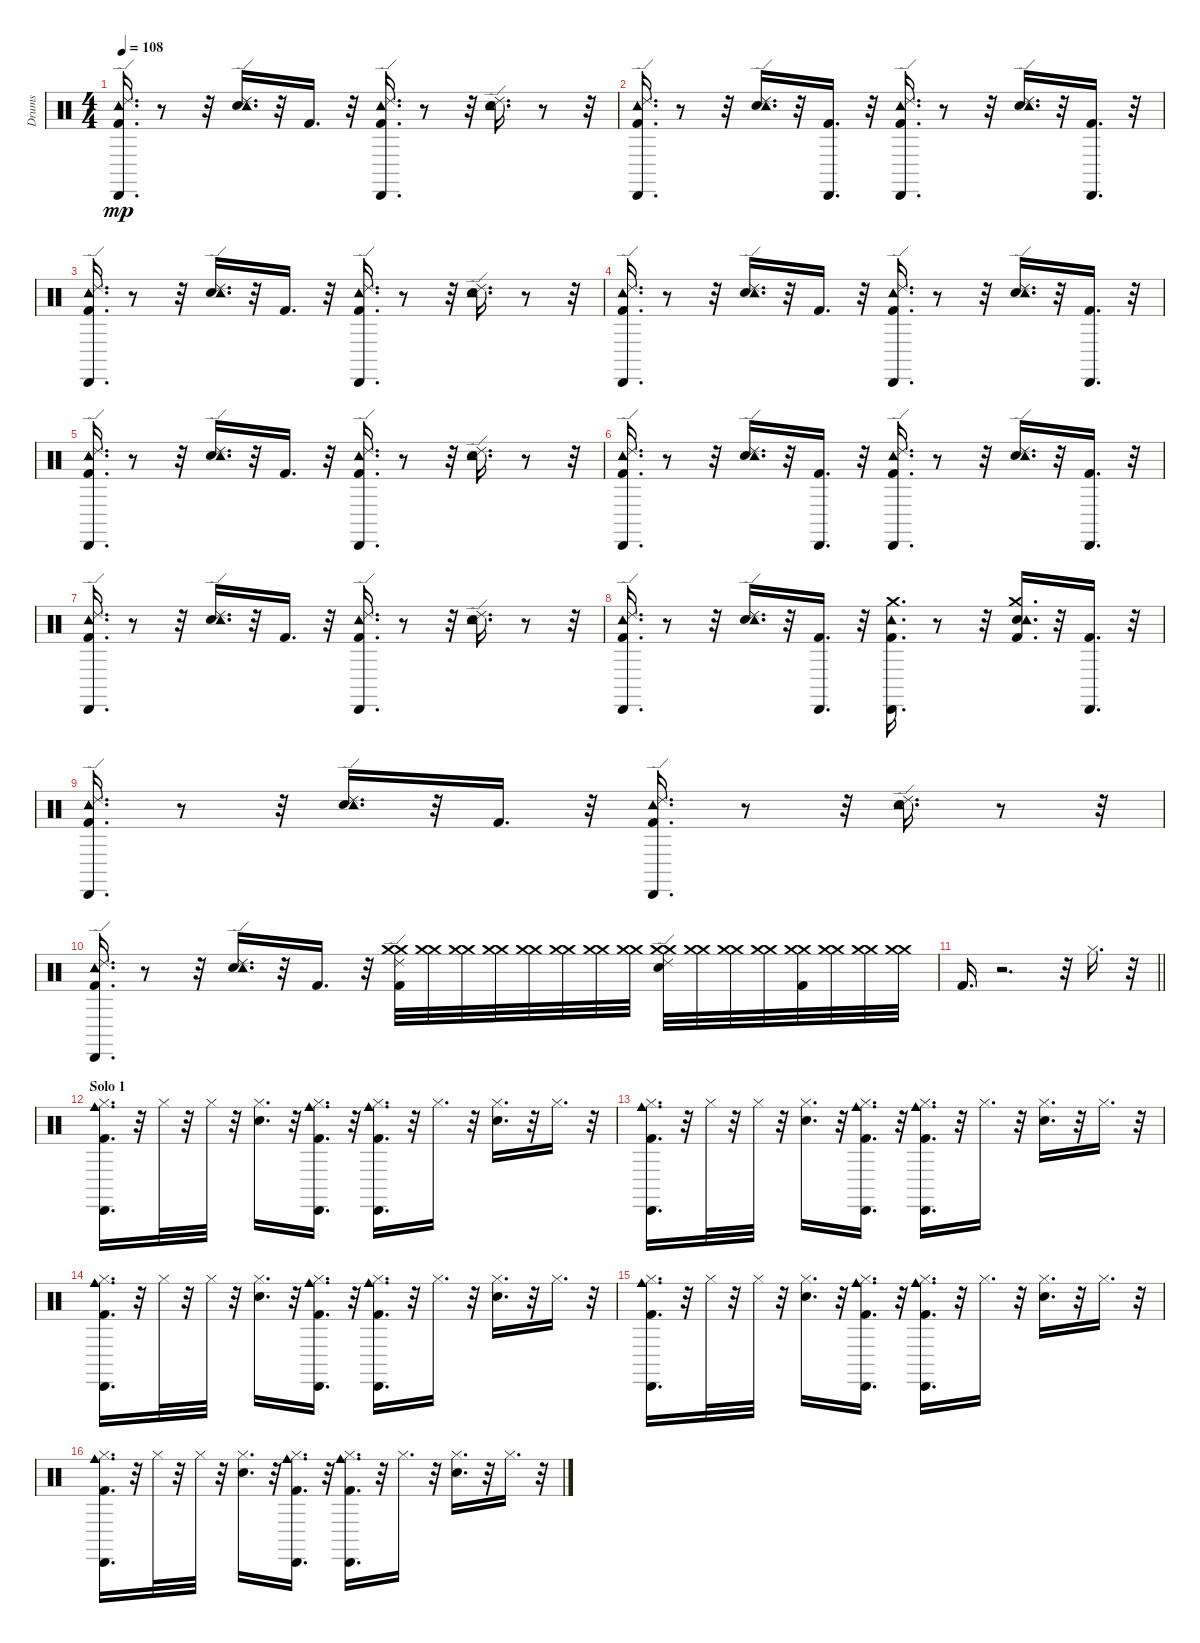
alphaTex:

\track ("Drums" "Drums") {instrument percussion}
\staff {score}
\articulation defaults
\ts (4 4)
\tempo 108
\clef neutral
\ks c
("Ride (edge) 2" "Kick (hit) 2" "Tambourine (hit)" "Cabasa (hit)").16{d dy mp} r.8 r.32 ("Ride (edge) 2" "Snare (hit) 2" "Tambourine (hit)").16{d} r.32 "Kick (hit) 2".16{d} r.32 ("Ride (edge) 2" "Kick (hit) 2" "Tambourine (hit)" "Cabasa (hit)").16{d} r.8 r.32 ("Ride (edge) 2" "Snare (hit) 2" "Tambourine (hit)").16{d} r.8 r.32 |
("Ride (edge) 2" "Kick (hit) 2" "Tambourine (hit)" "Cabasa (hit)").16{d} r.8 r.32 ("Ride (edge) 2" "Snare (hit) 2" "Tambourine (hit)").16{d} r.32 ("Kick (hit) 2" "Cabasa (hit)").16{d} r.32 ("Ride (edge) 2" "Kick (hit) 2" "Tambourine (hit)" "Cabasa (hit)").16{d} r.8 r.32 ("Ride (edge) 2" "Snare (hit) 2" "Tambourine (hit)").16{d} r.32 ("Cabasa (hit)" "Kick (hit) 2").16{d} r.32 |
("Ride (edge) 2" "Kick (hit) 2" "Tambourine (hit)" "Cabasa (hit)").16{d} r.8 r.32 ("Ride (edge) 2" "Snare (hit) 2" "Tambourine (hit)").16{d} r.32 "Kick (hit) 2".16{d} r.32 ("Ride (edge) 2" "Kick (hit) 2" "Tambourine (hit)" "Cabasa (hit)").16{d} r.8 r.32 ("Ride (edge) 2" "Snare (hit) 2" "Tambourine (hit)").16{d} r.8 r.32 |
("Ride (edge) 2" "Kick (hit) 2" "Tambourine (hit)" "Cabasa (hit)").16{d} r.8 r.32 ("Ride (edge) 2" "Snare (hit) 2" "Tambourine (hit)").16{d} r.32 "Kick (hit) 2".16{d} r.32 ("Ride (edge) 2" "Kick (hit) 2" "Tambourine (hit)" "Cabasa (hit)").16{d} r.8 r.32 ("Ride (edge) 2" "Snare (hit) 2" "Tambourine (hit)").16{d} r.32 ("Cabasa (hit)" "Kick (hit) 2").16{d} r.32 |
("Ride (edge) 2" "Kick (hit) 2" "Tambourine (hit)" "Cabasa (hit)").16{d} r.8 r.32 ("Ride (edge) 2" "Snare (hit) 2" "Tambourine (hit)").16{d} r.32 "Kick (hit) 2".16{d} r.32 ("Ride (edge) 2" "Kick (hit) 2" "Tambourine (hit)" "Cabasa (hit)").16{d} r.8 r.32 ("Ride (edge) 2" "Snare (hit) 2" "Tambourine (hit)").16{d} r.8 r.32 |
("Ride (edge) 2" "Kick (hit) 2" "Tambourine (hit)" "Cabasa (hit)").16{d} r.8 r.32 ("Ride (edge) 2" "Snare (hit) 2" "Tambourine (hit)").16{d} r.32 ("Kick (hit) 2" "Cabasa (hit)").16{d} r.32 ("Ride (edge) 2" "Kick (hit) 2" "Tambourine (hit)" "Cabasa (hit)").16{d} r.8 r.32 ("Ride (edge) 2" "Snare (hit) 2" "Tambourine (hit)").16{d} r.32 ("Cabasa (hit)" "Kick (hit) 2").16{d} r.32 |
("Ride (edge) 2" "Kick (hit) 2" "Tambourine (hit)" "Cabasa (hit)").16{d} r.8 r.32 ("Ride (edge) 2" "Snare (hit) 2" "Tambourine (hit)").16{d} r.32 "Kick (hit) 2".16{d} r.32 ("Ride (edge) 2" "Kick (hit) 2" "Tambourine (hit)" "Cabasa (hit)").16{d} r.8 r.32 ("Ride (edge) 2" "Snare (hit) 2" "Tambourine (hit)").16{d} r.8 r.32 |
("Ride (edge) 2" "Kick (hit) 2" "Tambourine (hit)" "Cabasa (hit)").16{d} r.8 r.32 ("Ride (edge) 2" "Snare (hit) 2" "Tambourine (hit)").16{d} r.32 ("Kick (hit) 2" "Cabasa (hit)").16{d} r.32 ("Kick (hit) 2" "Tambourine (hit)" "Cabasa (hit)" "Crash medium (hit)").16{d} r.8 r.32 ("Snare (hit) 2" "Kick (hit) 2" "Tambourine (hit)" "Crash medium (hit)").16{d} r.32 ("Cabasa (hit)" "Kick (hit) 2").16{d} r.32 |
("Ride (edge) 2" "Kick (hit) 2" "Tambourine (hit)" "Cabasa (hit)").16{d} r.8 r.32 ("Ride (edge) 2" "Snare (hit) 2" "Tambourine (hit)").16{d} r.32 "Kick (hit) 2".16{d} r.32 ("Kick (hit) 2" "Tambourine (hit)" "Cabasa (hit)" "Ride (edge) 2").16{d} r.8 r.32 ("Snare (hit) 2" "Tambourine (hit)" "Ride (edge) 2").16{d} r.8 r.32 |
("Ride (edge) 2" "Kick (hit) 2" "Tambourine (hit)" "Cabasa (hit)").16{d} r.8 r.32 ("Ride (edge) 2" "Snare (hit) 2" "Tambourine (hit)").16{d} r.32 "Kick (hit) 2".16{d} r.32 ("Kick (hit) 2" "Ride (edge) 2" "Crash medium (hit)" "Crash medium (hit)").32 ("Crash medium (hit)" "Crash medium (hit)").32 ("Crash medium (hit)" "Crash medium (hit)").32 ("Crash medium (hit)" "Crash medium (hit)").32 ("Crash medium (hit)" "Crash medium (hit)").32 ("Crash medium (hit)" "Crash medium (hit)").32 ("Crash medium (hit)" "Crash medium (hit)").32 ("Crash medium (hit)" "Crash medium (hit)").32 ("Ride (edge) 2" "Snare (hit) 2" "Crash medium (hit)" "Crash medium (hit)").32 ("Crash medium (hit)" "Crash medium (hit)").32 ("Crash medium (hit)" "Crash medium (hit)").32 ("Crash medium (hit)" "Crash medium (hit)").32 ("Kick (hit) 2" "Crash medium (hit)" "Crash medium (hit)").32 ("Crash medium (hit)" "Crash medium (hit)").32 ("Crash medium (hit)" "Crash medium (hit)").32 ("Crash medium (hit)" "Crash medium (hit)").32 |
\barLineRight lightlight "Kick (hit) 2".16{d}
r.2{d} r.32 "Hi-Hat (closed)".16{d} r.32 |
\section ("" "Solo 1")
("Kick (hit) 2" "Hi-Hat (closed)" "Cabasa (hit)" "Cowbell medium (hit)").16{d} r.32 "Hi-Hat (closed)".32 r.32 "Hi-Hat (closed)".32 r.32 ("Snare (hit) 2" "Hi-Hat (closed)").16{d} r.32 ("Kick (hit) 2" "Hi-Hat (closed)" "Cabasa (hit)" "Cowbell medium (hit)").16{d} r.32 ("Kick (hit) 2" "Hi-Hat (closed)" "Cabasa (hit)" "Cowbell medium (hit)").16{d} r.32 "Hi-Hat (closed)".16{d} r.32 ("Snare (hit) 2" "Hi-Hat (closed)").16{d} r.32 "Hi-Hat (closed)".16{d} r.32 |
("Kick (hit) 2" "Hi-Hat (closed)" "Cabasa (hit)" "Cowbell medium (hit)").16{d} r.32 "Hi-Hat (closed)".32 r.32 "Hi-Hat (closed)".32 r.32 ("Snare (hit) 2" "Hi-Hat (closed)").16{d} r.32 ("Kick (hit) 2" "Hi-Hat (closed)" "Cabasa (hit)" "Cowbell medium (hit)").16{d} r.32 ("Kick (hit) 2" "Hi-Hat (closed)" "Cabasa (hit)" "Cowbell medium (hit)").16{d} r.32 "Hi-Hat (closed)".16{d} r.32 ("Snare (hit) 2" "Hi-Hat (closed)").16{d} r.32 "Hi-Hat (closed)".16{d} r.32 |
("Kick (hit) 2" "Hi-Hat (closed)" "Cabasa (hit)" "Cowbell medium (hit)").16{d} r.32 "Hi-Hat (closed)".32 r.32 "Hi-Hat (closed)".32 r.32 ("Snare (hit) 2" "Hi-Hat (closed)").16{d} r.32 ("Kick (hit) 2" "Hi-Hat (closed)" "Cabasa (hit)" "Cowbell medium (hit)").16{d} r.32 ("Kick (hit) 2" "Hi-Hat (closed)" "Cabasa (hit)" "Cowbell medium (hit)").16{d} r.32 "Hi-Hat (closed)".16{d} r.32 ("Snare (hit) 2" "Hi-Hat (closed)").16{d} r.32 "Hi-Hat (closed)".16{d} r.32 |
("Kick (hit) 2" "Hi-Hat (closed)" "Cabasa (hit)" "Cowbell medium (hit)").16{d} r.32 "Hi-Hat (closed)".32 r.32 "Hi-Hat (closed)".32 r.32 ("Snare (hit) 2" "Hi-Hat (closed)").16{d} r.32 ("Kick (hit) 2" "Hi-Hat (closed)" "Cabasa (hit)" "Cowbell medium (hit)").16{d} r.32 ("Kick (hit) 2" "Hi-Hat (closed)" "Cabasa (hit)" "Cowbell medium (hit)").16{d} r.32 "Hi-Hat (closed)".16{d} r.32 ("Snare (hit) 2" "Hi-Hat (closed)").16{d} r.32 "Hi-Hat (closed)".16{d} r.32 |
("Kick (hit) 2" "Hi-Hat (closed)" "Cabasa (hit)" "Cowbell medium (hit)").16{d} r.32 "Hi-Hat (closed)".32 r.32 "Hi-Hat (closed)".32 r.32 ("Snare (hit) 2" "Hi-Hat (closed)").16{d} r.32 ("Kick (hit) 2" "Hi-Hat (closed)" "Cabasa (hit)" "Cowbell medium (hit)").16{d} r.32 ("Kick (hit) 2" "Hi-Hat (closed)" "Cabasa (hit)" "Cowbell medium (hit)").16{d} r.32 "Hi-Hat (closed)".16{d} r.32 ("Snare (hit) 2" "Hi-Hat (closed)").16{d} r.32 "Hi-Hat (closed)".16{d} r.32
